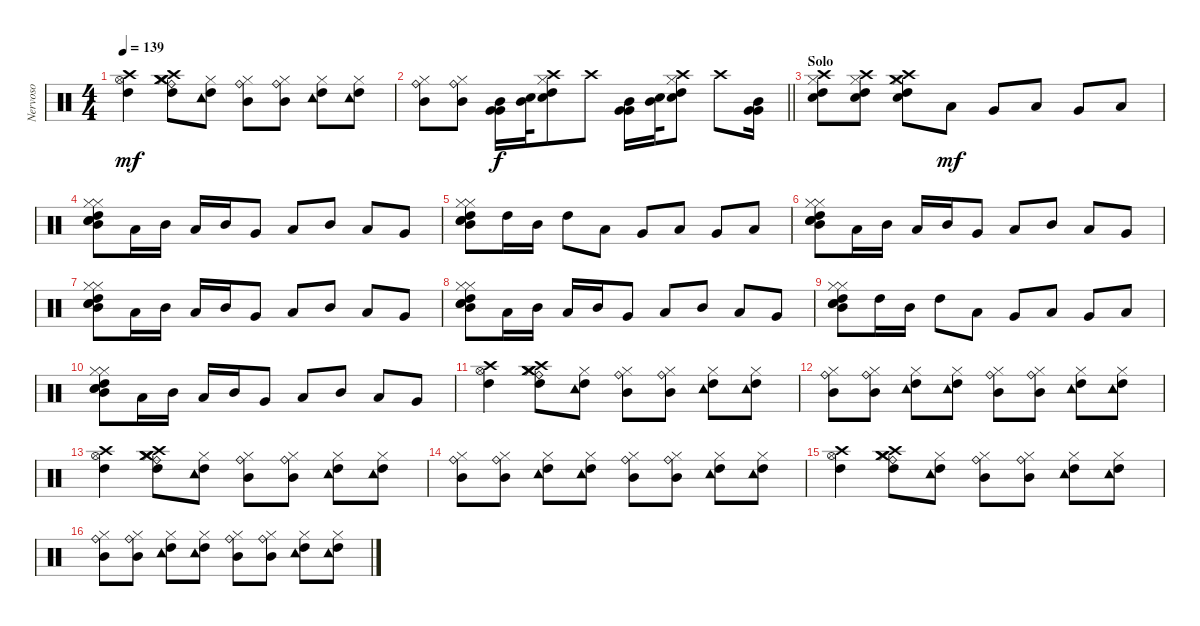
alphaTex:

\track ("Nervoso" "Nervoso") {instrument percussion}
\staff {score}
\articulation defaults
\ts (4 4)
\tempo 139
\clef neutral
\ks c
("Hi-Hat (open)" "Crash high (hit)" "High Tom (hit)").4{dy mf} ("High Tom (hit)" "Crash high (hit)" "Crash medium (hit)" "Hi-Hat (closed)" "Ride (bell)" "Crash medium (hit)").8 ("High Tom (hit)" "Hi-Hat (closed)" "Tambourine (hit)").8 ("Ride (bell)" "Mid Tom (hit)" "Hi-Hat (closed)").8 ("Ride (bell)" "Mid Tom (hit)" "Hi-Hat (closed)").8 ("High Tom (hit)" "Hi-Hat (closed)" "Tambourine (hit)").8 ("High Tom (hit)" "Hi-Hat (closed)" "Tambourine (hit)").8 |
\barLineRight lightlight
("Ride (bell)" "Mid Tom (hit)" "Hi-Hat (closed)").8 ("Ride (bell)" "Mid Tom (hit)" "Hi-Hat (closed)").8 ("Very Low Tom (hit)" "Mid Tom (hit)" "Very Low Tom (hit)").16{dy f} ("Mid Tom (hit)" "Electric Snare (hit)").32 ("High Tom (hit)" "Hi-Hat (closed)" "Electric Snare (hit)" "Crash high (hit)").8 "Crash high (hit)".8 ("Very Low Tom (hit)" "Mid Tom (hit)" "Very Low Tom (hit)").16 ("Mid Tom (hit)" "Electric Snare (hit)").32 ("High Tom (hit)" "Hi-Hat (closed)" "Electric Snare (hit)" "Crash high (hit)").8 "Crash high (hit)".8 ("Very Low Tom (hit)" "Mid Tom (hit)" "Very Low Tom (hit)").16 |
\section ("" "Solo")
("High Tom (hit)" "Hi-Hat (closed)" "Electric Snare (hit)" "Crash high (hit)").8 ("High Tom (hit)" "Hi-Hat (closed)" "Electric Snare (hit)" "Crash high (hit)").8 ("High Tom (hit)" "Hi-Hat (closed)" "Electric Snare (hit)" "Crash high (hit)" "Crash medium (hit)").8 "Low Tom (hit)".8{dy mf} "Very Low Tom (hit)".8 "Low Tom (hit)".8 "Very Low Tom (hit)".8 "Low Tom (hit)".8 |
("High Tom (hit)" "Electric Snare (hit)" "Hi-Hat (closed)" "Hi-Hat (closed)" "Electric Snare (hit)" "Mid Tom (hit)").8 "Low Tom (hit)".16 "Mid Tom (hit)".16 "Low Tom (hit)".16 "Mid Tom (hit)".16 "Very Low Tom (hit)".8 "Low Tom (hit)".8 "Mid Tom (hit)".8 "Low Tom (hit)".8 "Very Low Tom (hit)".8 |
("High Tom (hit)" "Electric Snare (hit)" "Hi-Hat (closed)" "Hi-Hat (closed)" "Electric Snare (hit)" "Mid Tom (hit)").8 "High Tom (hit)".16 "Mid Tom (hit)".16 "High Tom (hit)".8 "Low Tom (hit)".8 "Very Low Tom (hit)".8 "Low Tom (hit)".8 "Very Low Tom (hit)".8 "Low Tom (hit)".8 |
("High Tom (hit)" "Electric Snare (hit)" "Hi-Hat (closed)" "Hi-Hat (closed)" "Electric Snare (hit)" "Mid Tom (hit)").8 "Low Tom (hit)".16 "Mid Tom (hit)".16 "Low Tom (hit)".16 "Mid Tom (hit)".16 "Very Low Tom (hit)".8 "Low Tom (hit)".8 "Mid Tom (hit)".8 "Low Tom (hit)".8 "Very Low Tom (hit)".8 |
("High Tom (hit)" "Electric Snare (hit)" "Hi-Hat (closed)" "Hi-Hat (closed)" "Electric Snare (hit)" "Mid Tom (hit)").8 "Low Tom (hit)".16 "Mid Tom (hit)".16 "Low Tom (hit)".16 "Mid Tom (hit)".16 "Very Low Tom (hit)".8 "Low Tom (hit)".8 "Mid Tom (hit)".8 "Low Tom (hit)".8 "Very Low Tom (hit)".8 |
("High Tom (hit)" "Electric Snare (hit)" "Hi-Hat (closed)" "Hi-Hat (closed)" "Electric Snare (hit)" "Mid Tom (hit)").8 "Low Tom (hit)".16 "Mid Tom (hit)".16 "Low Tom (hit)".16 "Mid Tom (hit)".16 "Very Low Tom (hit)".8 "Low Tom (hit)".8 "Mid Tom (hit)".8 "Low Tom (hit)".8 "Very Low Tom (hit)".8 |
("High Tom (hit)" "Electric Snare (hit)" "Hi-Hat (closed)" "Hi-Hat (closed)" "Electric Snare (hit)" "Mid Tom (hit)").8 "High Tom (hit)".16 "Mid Tom (hit)".16 "High Tom (hit)".8 "Low Tom (hit)".8 "Very Low Tom (hit)".8 "Low Tom (hit)".8 "Very Low Tom (hit)".8 "Low Tom (hit)".8 |
("High Tom (hit)" "Electric Snare (hit)" "Hi-Hat (closed)" "Hi-Hat (closed)" "Electric Snare (hit)" "Mid Tom (hit)").8 "Low Tom (hit)".16 "Mid Tom (hit)".16 "Low Tom (hit)".16 "Mid Tom (hit)".16 "Very Low Tom (hit)".8 "Low Tom (hit)".8 "Mid Tom (hit)".8 "Low Tom (hit)".8 "Very Low Tom (hit)".8 |
("Hi-Hat (open)" "Crash high (hit)" "High Tom (hit)").4 ("High Tom (hit)" "Crash high (hit)" "Crash medium (hit)" "Hi-Hat (closed)" "Ride (bell)" "Crash medium (hit)").8 ("High Tom (hit)" "Hi-Hat (closed)" "Tambourine (hit)").8 ("Ride (bell)" "Mid Tom (hit)" "Hi-Hat (closed)").8 ("Ride (bell)" "Mid Tom (hit)" "Hi-Hat (closed)").8 ("High Tom (hit)" "Hi-Hat (closed)" "Tambourine (hit)").8 ("High Tom (hit)" "Hi-Hat (closed)" "Tambourine (hit)").8 |
("Ride (bell)" "Mid Tom (hit)" "Hi-Hat (closed)").8 ("Ride (bell)" "Mid Tom (hit)" "Hi-Hat (closed)").8 ("High Tom (hit)" "Hi-Hat (closed)" "Tambourine (hit)").8 ("High Tom (hit)" "Hi-Hat (closed)" "Tambourine (hit)").8 ("Ride (bell)" "Mid Tom (hit)" "Hi-Hat (closed)").8 ("Ride (bell)" "Mid Tom (hit)" "Hi-Hat (closed)").8 ("High Tom (hit)" "Hi-Hat (closed)" "Tambourine (hit)").8 ("High Tom (hit)" "Hi-Hat (closed)" "Tambourine (hit)").8 |
("Hi-Hat (open)" "Crash high (hit)" "High Tom (hit)").4 ("High Tom (hit)" "Crash high (hit)" "Crash medium (hit)" "Hi-Hat (closed)" "Ride (bell)" "Crash medium (hit)").8 ("High Tom (hit)" "Hi-Hat (closed)" "Tambourine (hit)").8 ("Ride (bell)" "Mid Tom (hit)" "Hi-Hat (closed)").8 ("Ride (bell)" "Mid Tom (hit)" "Hi-Hat (closed)").8 ("High Tom (hit)" "Hi-Hat (closed)" "Tambourine (hit)").8 ("High Tom (hit)" "Hi-Hat (closed)" "Tambourine (hit)").8 |
("Ride (bell)" "Mid Tom (hit)" "Hi-Hat (closed)").8 ("Ride (bell)" "Mid Tom (hit)" "Hi-Hat (closed)").8 ("High Tom (hit)" "Hi-Hat (closed)" "Tambourine (hit)").8 ("High Tom (hit)" "Hi-Hat (closed)" "Tambourine (hit)").8 ("Ride (bell)" "Mid Tom (hit)" "Hi-Hat (closed)").8 ("Ride (bell)" "Mid Tom (hit)" "Hi-Hat (closed)").8 ("High Tom (hit)" "Hi-Hat (closed)" "Tambourine (hit)").8 ("High Tom (hit)" "Hi-Hat (closed)" "Tambourine (hit)").8 |
("Hi-Hat (open)" "Crash high (hit)" "High Tom (hit)").4 ("High Tom (hit)" "Crash high (hit)" "Crash medium (hit)" "Hi-Hat (closed)" "Ride (bell)" "Crash medium (hit)").8 ("High Tom (hit)" "Hi-Hat (closed)" "Tambourine (hit)").8 ("Ride (bell)" "Mid Tom (hit)" "Hi-Hat (closed)").8 ("Ride (bell)" "Mid Tom (hit)" "Hi-Hat (closed)").8 ("High Tom (hit)" "Hi-Hat (closed)" "Tambourine (hit)").8 ("High Tom (hit)" "Hi-Hat (closed)" "Tambourine (hit)").8 |
("Ride (bell)" "Mid Tom (hit)" "Hi-Hat (closed)").8 ("Ride (bell)" "Mid Tom (hit)" "Hi-Hat (closed)").8 ("High Tom (hit)" "Hi-Hat (closed)" "Tambourine (hit)").8 ("High Tom (hit)" "Hi-Hat (closed)" "Tambourine (hit)").8 ("Ride (bell)" "Mid Tom (hit)" "Hi-Hat (closed)").8 ("Ride (bell)" "Mid Tom (hit)" "Hi-Hat (closed)").8 ("High Tom (hit)" "Hi-Hat (closed)" "Tambourine (hit)").8 ("High Tom (hit)" "Hi-Hat (closed)" "Tambourine (hit)").8
